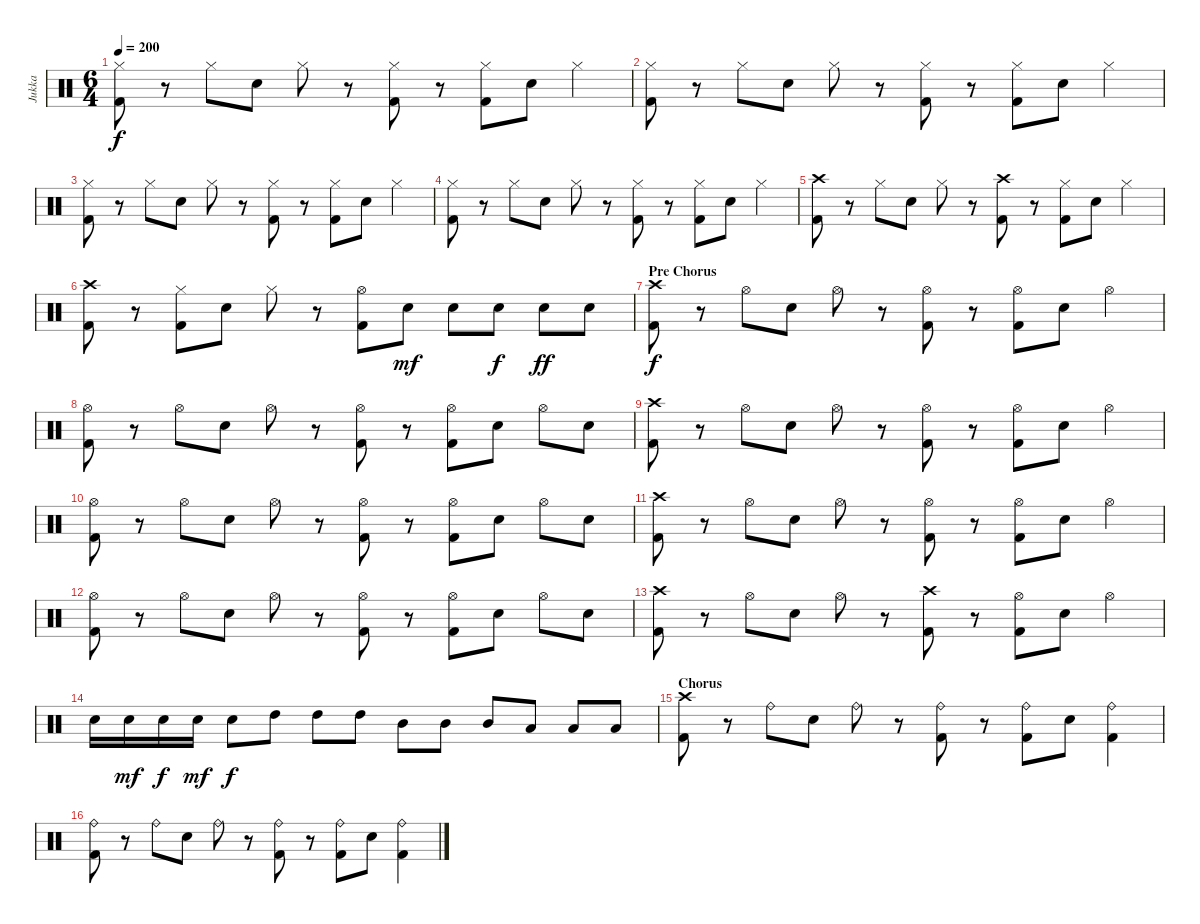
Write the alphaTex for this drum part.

\track ("Jukka" "Jukka") {instrument percussion}
\staff {score}
\articulation defaults
\ts (6 4)
\tempo 200
\clef neutral
\ks c
("Hi-Hat (closed)" "Kick (hit) 2").8{dy f} r.8 "Hi-Hat (closed)".8 "Snare (hit) 2".8 "Hi-Hat (closed)".8 r.8 ("Hi-Hat (closed)" "Kick (hit) 2").8 r.8 ("Hi-Hat (closed)" "Kick (hit) 2").8 "Snare (hit) 2".8 "Hi-Hat (closed)".4 |
("Hi-Hat (closed)" "Kick (hit) 2").8 r.8 "Hi-Hat (closed)".8 "Snare (hit) 2".8 "Hi-Hat (closed)".8 r.8 ("Hi-Hat (closed)" "Kick (hit) 2").8 r.8 ("Hi-Hat (closed)" "Kick (hit) 2").8 "Snare (hit) 2".8 "Hi-Hat (closed)".4 |
("Hi-Hat (closed)" "Kick (hit) 2").8 r.8 "Hi-Hat (closed)".8 "Snare (hit) 2".8 "Hi-Hat (closed)".8 r.8 ("Hi-Hat (closed)" "Kick (hit) 2").8 r.8 ("Hi-Hat (closed)" "Kick (hit) 2").8 "Snare (hit) 2".8 "Hi-Hat (closed)".4 |
("Hi-Hat (closed)" "Kick (hit) 2").8 r.8 "Hi-Hat (closed)".8 "Snare (hit) 2".8 "Hi-Hat (closed)".8 r.8 ("Hi-Hat (closed)" "Kick (hit) 2").8 r.8 ("Hi-Hat (closed)" "Kick (hit) 2").8 "Snare (hit) 2".8 "Hi-Hat (closed)".4 |
("Crash high (hit)" "Kick (hit) 2").8 r.8 "Hi-Hat (closed)".8 "Snare (hit) 2".8 "Hi-Hat (closed)".8 r.8 ("Crash high (hit)" "Kick (hit) 2").8 r.8 ("Hi-Hat (closed)" "Kick (hit) 2").8 "Snare (hit) 2".8 "Hi-Hat (closed)".4 |
("Crash high (hit)" "Kick (hit) 2").8 r.8 ("Hi-Hat (closed)" "Kick (hit) 2").8 "Snare (hit) 2".8 "Hi-Hat (closed)".8 r.8 ("Hi-Hat (open)" "Kick (hit) 2").8 "Snare (hit) 2".8{dy mf} "Snare (hit) 2".8 "Snare (hit) 2".8{dy f} "Snare (hit) 2".8{dy ff} "Snare (hit) 2".8 |
\section ("" "Pre Chorus")
("Crash high (hit)" "Kick (hit) 2").8{dy f} r.8 "Hi-Hat (open)".8 "Snare (hit) 2".8 "Hi-Hat (open)".8 r.8 ("Hi-Hat (open)" "Kick (hit) 2").8 r.8 ("Hi-Hat (open)" "Kick (hit) 2").8 "Snare (hit) 2".8 "Hi-Hat (open)".4 |
("Hi-Hat (open)" "Kick (hit) 2").8 r.8 "Hi-Hat (open)".8 "Snare (hit) 2".8 "Hi-Hat (open)".8 r.8 ("Hi-Hat (open)" "Kick (hit) 2").8 r.8 ("Hi-Hat (open)" "Kick (hit) 2").8 "Snare (hit) 2".8 "Hi-Hat (open)".8 "Snare (hit) 2".8 |
("Crash high (hit)" "Kick (hit) 2").8 r.8 "Hi-Hat (open)".8 "Snare (hit) 2".8 "Hi-Hat (open)".8 r.8 ("Hi-Hat (open)" "Kick (hit) 2").8 r.8 ("Hi-Hat (open)" "Kick (hit) 2").8 "Snare (hit) 2".8 "Hi-Hat (open)".4 |
("Hi-Hat (open)" "Kick (hit) 2").8 r.8 "Hi-Hat (open)".8 "Snare (hit) 2".8 "Hi-Hat (open)".8 r.8 ("Hi-Hat (open)" "Kick (hit) 2").8 r.8 ("Hi-Hat (open)" "Kick (hit) 2").8 "Snare (hit) 2".8 "Hi-Hat (open)".8 "Snare (hit) 2".8 |
("Crash high (hit)" "Kick (hit) 2").8 r.8 "Hi-Hat (open)".8 "Snare (hit) 2".8 "Hi-Hat (open)".8 r.8 ("Hi-Hat (open)" "Kick (hit) 2").8 r.8 ("Hi-Hat (open)" "Kick (hit) 2").8 "Snare (hit) 2".8 "Hi-Hat (open)".4 |
("Hi-Hat (open)" "Kick (hit) 2").8 r.8 "Hi-Hat (open)".8 "Snare (hit) 2".8 "Hi-Hat (open)".8 r.8 ("Hi-Hat (open)" "Kick (hit) 2").8 r.8 ("Hi-Hat (open)" "Kick (hit) 2").8 "Snare (hit) 2".8 "Hi-Hat (open)".8 "Snare (hit) 2".8 |
("Crash high (hit)" "Kick (hit) 2").8 r.8 "Hi-Hat (open)".8 "Snare (hit) 2".8 "Hi-Hat (open)".8 r.8 ("Crash high (hit)" "Kick (hit) 2").8 r.8 ("Hi-Hat (open)" "Kick (hit) 2").8 "Snare (hit) 2".8 "Hi-Hat (open)".4 |
"Snare (hit) 2".16 "Snare (hit) 2".16{dy mf} "Snare (hit) 2".16{dy f} "Snare (hit) 2".16{dy mf} "Snare (hit) 2".8{dy f} "High Tom (hit)".8 "High Tom (hit)".8 "High Tom (hit)".8 "Mid Tom (hit)".8 "Mid Tom (hit)".8 "Mid Tom (hit)".8 "Low Tom (hit)".8 "Low Tom (hit)".8 "Low Tom (hit)".8 |
\section ("" "Chorus")
("Crash high (hit)" "Kick (hit) 2").8 r.8 "Ride (bell)".8 "Snare (hit) 2".8 "Ride (bell)".8 r.8 ("Ride (bell)" "Kick (hit) 2").8 r.8 ("Ride (bell)" "Kick (hit) 2").8 "Snare (hit) 2".8 ("Ride (bell)" "Kick (hit) 2").4 |
("Ride (bell)" "Kick (hit) 2").8 r.8 "Ride (bell)".8 "Snare (hit) 2".8 "Ride (bell)".8 r.8 ("Ride (bell)" "Kick (hit) 2").8 r.8 ("Ride (bell)" "Kick (hit) 2").8 "Snare (hit) 2".8 ("Ride (bell)" "Kick (hit) 2").4
